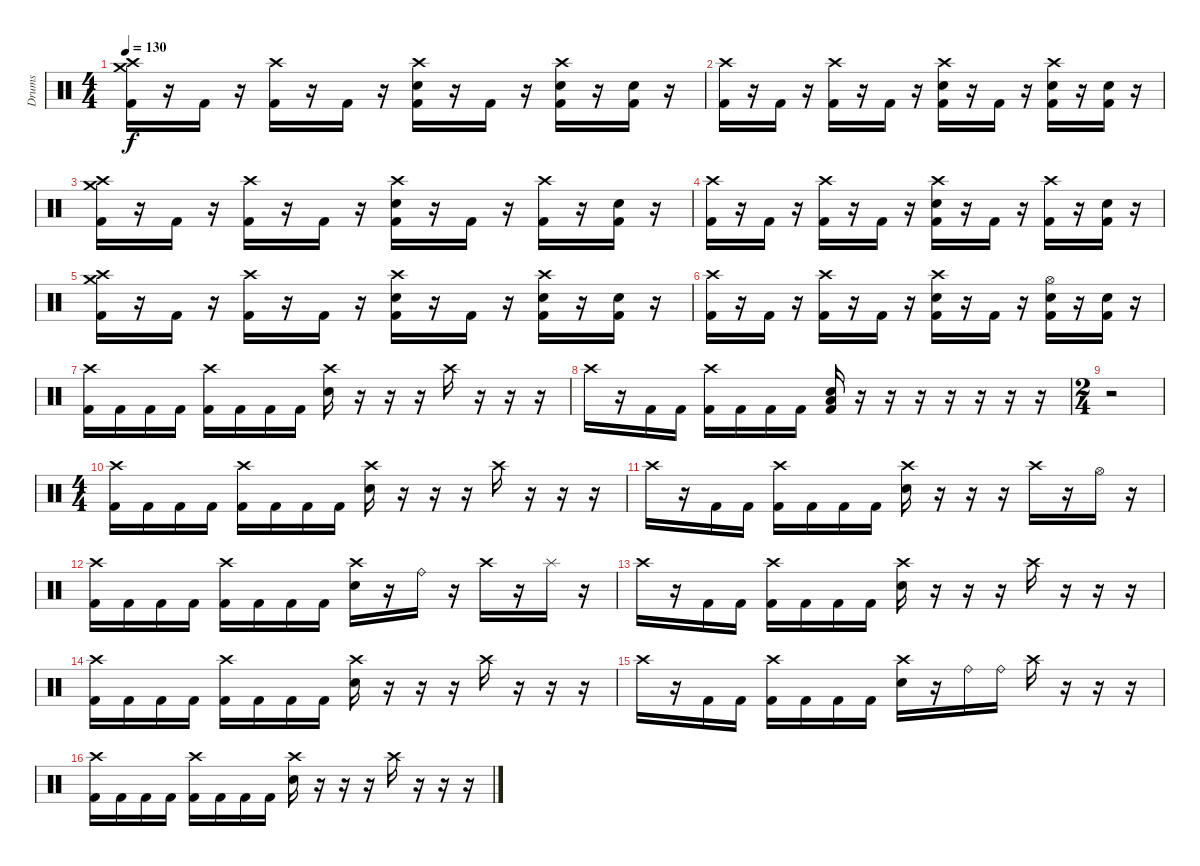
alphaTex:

\track ("Drums" "Drums") {instrument percussion}
\staff {score}
\articulation defaults
\ts (4 4)
\tempo 130
\clef neutral
\ks c
("Crash high (hit)" "Crash medium (hit)" "Kick (hit) 2").16{dy f} r.16 "Kick (hit) 2".16 r.16 ("Crash high (hit)" "Kick (hit) 2").16 r.16 "Kick (hit) 2".16 r.16 ("Crash high (hit)" "Electric Snare (hit)" "Kick (hit) 2").16 r.16 "Kick (hit) 2".16 r.16 ("Crash high (hit)" "Electric Snare (hit)" "Kick (hit) 2").16 r.16 ("Electric Snare (hit)" "Kick (hit) 2").16 r.16 |
("Crash high (hit)" "Kick (hit) 2").16 r.16 "Kick (hit) 2".16 r.16 ("Crash high (hit)" "Kick (hit) 2").16 r.16 "Kick (hit) 2".16 r.16 ("Crash high (hit)" "Electric Snare (hit)" "Kick (hit) 2").16 r.16 "Kick (hit) 2".16 r.16 ("Crash high (hit)" "Electric Snare (hit)" "Kick (hit) 2").16 r.16 ("Electric Snare (hit)" "Kick (hit) 2").16 r.16 |
("Crash high (hit)" "Crash medium (hit)" "Kick (hit) 2").16 r.16 "Kick (hit) 2".16 r.16 ("Crash high (hit)" "Kick (hit) 2").16 r.16 "Kick (hit) 2".16 r.16 ("Crash high (hit)" "Electric Snare (hit)" "Kick (hit) 2").16 r.16 "Kick (hit) 2".16 r.16 ("Crash high (hit)" "Kick (hit) 2").16 r.16 ("Electric Snare (hit)" "Kick (hit) 2").16 r.16 |
("Crash high (hit)" "Kick (hit) 2").16 r.16 "Kick (hit) 2".16 r.16 ("Crash high (hit)" "Kick (hit) 2").16 r.16 "Kick (hit) 2".16 r.16 ("Crash high (hit)" "Electric Snare (hit)" "Kick (hit) 2").16 r.16 "Kick (hit) 2".16 r.16 ("Crash high (hit)" "Kick (hit) 2").16 r.16 ("Electric Snare (hit)" "Kick (hit) 2").16 r.16 |
("Crash high (hit)" "Crash medium (hit)" "Kick (hit) 2").16 r.16 "Kick (hit) 2".16 r.16 ("Crash high (hit)" "Kick (hit) 2").16 r.16 "Kick (hit) 2".16 r.16 ("Crash high (hit)" "Electric Snare (hit)" "Kick (hit) 2").16 r.16 "Kick (hit) 2".16 r.16 ("Crash high (hit)" "Electric Snare (hit)" "Kick (hit) 2").16 r.16 ("Electric Snare (hit)" "Kick (hit) 2").16 r.16 |
("Crash high (hit)" "Kick (hit) 2").16 r.16 "Kick (hit) 2".16 r.16 ("Crash high (hit)" "Kick (hit) 2").16 r.16 "Kick (hit) 2".16 r.16 ("Crash high (hit)" "Electric Snare (hit)" "Kick (hit) 2").16 r.16 "Kick (hit) 2".16 r.16 ("Hi-Hat (open)" "Electric Snare (hit)" "Kick (hit) 2").16 r.16 ("Electric Snare (hit)" "Kick (hit) 2").16 r.16 |
("Crash high (hit)" "Kick (hit) 2").16 "Kick (hit) 2".16 "Kick (hit) 2".16 "Kick (hit) 2".16 ("Crash high (hit)" "Kick (hit) 2").16 "Kick (hit) 2".16 "Kick (hit) 2".16 "Kick (hit) 2".16 ("Crash high (hit)" "Electric Snare (hit)").16 r.16 r.16 r.16 "Crash high (hit)".16 r.16 r.16 r.16 |
"Crash high (hit)".16 r.16 "Kick (hit) 2".16 "Kick (hit) 2".16 ("Crash high (hit)" "Kick (hit) 2").16 "Kick (hit) 2".16 "Kick (hit) 2".16 "Kick (hit) 2".16 ("Low Floor Tom (hit)" "Electric Snare (hit)" "Kick (hit) 2").16 r.16 r.16 r.16 r.16 r.16 r.16 r.16 |
\ts (2 4)
r.2 |
\ts (4 4)
("Crash high (hit)" "Kick (hit) 2").16 "Kick (hit) 2".16 "Kick (hit) 2".16 "Kick (hit) 2".16 ("Crash high (hit)" "Kick (hit) 2").16 "Kick (hit) 2".16 "Kick (hit) 2".16 "Kick (hit) 2".16 ("Crash high (hit)" "Electric Snare (hit)").16 r.16 r.16 r.16 "Crash high (hit)".16 r.16 r.16 r.16 |
"Crash high (hit)".16 r.16 "Kick (hit) 2".16 "Kick (hit) 2".16 ("Crash high (hit)" "Kick (hit) 2").16 "Kick (hit) 2".16 "Kick (hit) 2".16 "Kick (hit) 2".16 ("Crash high (hit)" "Electric Snare (hit)").16 r.16 r.16 r.16 "Crash high (hit)".16 r.16 "Hi-Hat (open)".16 r.16 |
("Crash high (hit)" "Kick (hit) 2").16 "Kick (hit) 2".16 "Kick (hit) 2".16 "Kick (hit) 2".16 ("Crash high (hit)" "Kick (hit) 2").16 "Kick (hit) 2".16 "Kick (hit) 2".16 "Kick (hit) 2".16 ("Crash high (hit)" "Electric Snare (hit)").16 r.16 "Ride (bell)".16 r.16 "Crash high (hit)".16 r.16 "Splash (hit)".16 r.16 |
"Crash high (hit)".16 r.16 "Kick (hit) 2".16 "Kick (hit) 2".16 ("Crash high (hit)" "Kick (hit) 2").16 "Kick (hit) 2".16 "Kick (hit) 2".16 "Kick (hit) 2".16 ("Crash high (hit)" "Electric Snare (hit)").16 r.16 r.16 r.16 "Crash high (hit)".16 r.16 r.16 r.16 |
("Crash high (hit)" "Kick (hit) 2").16 "Kick (hit) 2".16 "Kick (hit) 2".16 "Kick (hit) 2".16 ("Crash high (hit)" "Kick (hit) 2").16 "Kick (hit) 2".16 "Kick (hit) 2".16 "Kick (hit) 2".16 ("Crash high (hit)" "Electric Snare (hit)").16 r.16 r.16 r.16 "Crash high (hit)".16 r.16 r.16 r.16 |
"Crash high (hit)".16 r.16 "Kick (hit) 2".16 "Kick (hit) 2".16 ("Crash high (hit)" "Kick (hit) 2").16 "Kick (hit) 2".16 "Kick (hit) 2".16 "Kick (hit) 2".16 ("Crash high (hit)" "Electric Snare (hit)").16 r.16 "Ride (bell)".16 "Ride (bell)".16 "Crash high (hit)".16 r.16 r.16 r.16 |
("Crash high (hit)" "Kick (hit) 2").16 "Kick (hit) 2".16 "Kick (hit) 2".16 "Kick (hit) 2".16 ("Crash high (hit)" "Kick (hit) 2").16 "Kick (hit) 2".16 "Kick (hit) 2".16 "Kick (hit) 2".16 ("Crash high (hit)" "Electric Snare (hit)").16 r.16 r.16 r.16 "Crash high (hit)".16 r.16 r.16 r.16
